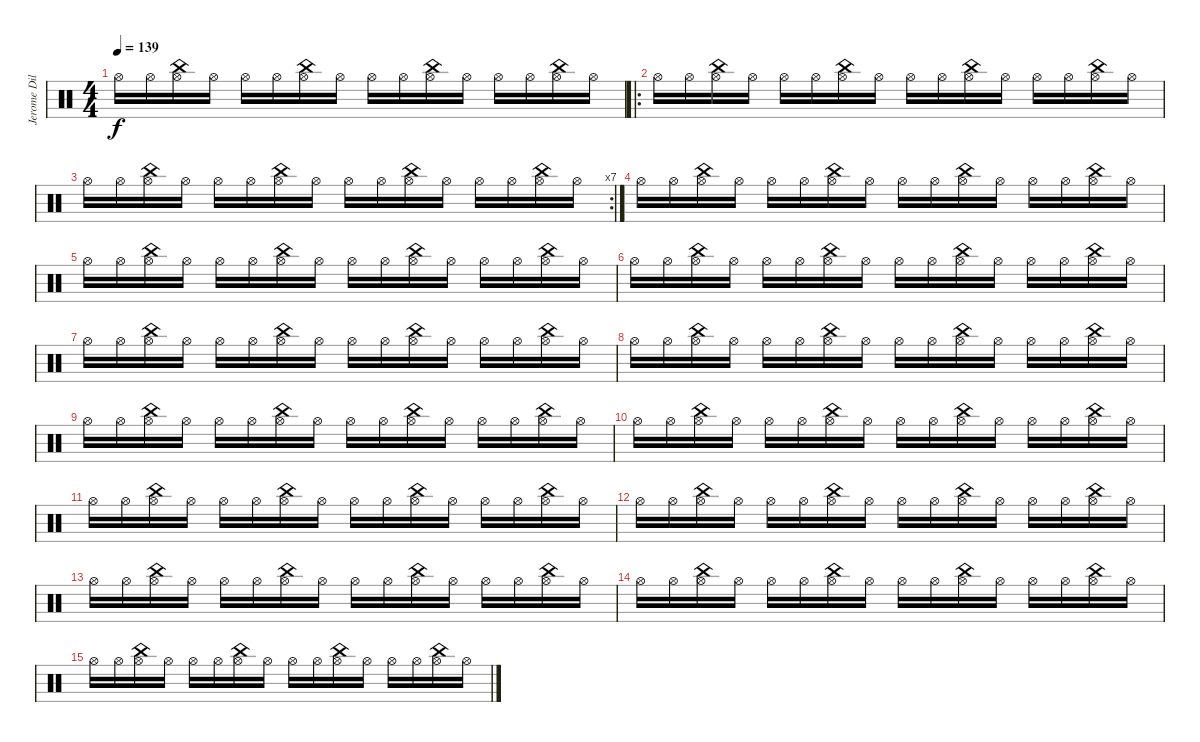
\track ("Jerome Dillon - Batería 2" "Jerome Dil") {instrument percussion}
\staff {score}
\articulation defaults
\ts (4 4)
\tempo 139
\clef neutral
\ks c "Hi-Hat (open)".16{dy f} "Hi-Hat (open)".16
("Hi-Hat (open)" "China (hit)").16 "Hi-Hat (open)".16 "Hi-Hat (open)".16 "Hi-Hat (open)".16 ("Hi-Hat (open)" "China (hit)").16 "Hi-Hat (open)".16 "Hi-Hat (open)".16 "Hi-Hat (open)".16 ("Hi-Hat (open)" "China (hit)").16 "Hi-Hat (open)".16 "Hi-Hat (open)".16 "Hi-Hat (open)".16 ("Hi-Hat (open)" "China (hit)").16 "Hi-Hat (open)".16 |
\ro "Hi-Hat (open)".16 "Hi-Hat (open)".16
("Hi-Hat (open)" "China (hit)").16 "Hi-Hat (open)".16 "Hi-Hat (open)".16 "Hi-Hat (open)".16 ("Hi-Hat (open)" "China (hit)").16 "Hi-Hat (open)".16 "Hi-Hat (open)".16 "Hi-Hat (open)".16 ("Hi-Hat (open)" "China (hit)").16 "Hi-Hat (open)".16 "Hi-Hat (open)".16 "Hi-Hat (open)".16 ("Hi-Hat (open)" "China (hit)").16 "Hi-Hat (open)".16 |
\rc 7 "Hi-Hat (open)".16 "Hi-Hat (open)".16
("Hi-Hat (open)" "China (hit)").16 "Hi-Hat (open)".16 "Hi-Hat (open)".16 "Hi-Hat (open)".16 ("Hi-Hat (open)" "China (hit)").16 "Hi-Hat (open)".16 "Hi-Hat (open)".16 "Hi-Hat (open)".16 ("Hi-Hat (open)" "China (hit)").16 "Hi-Hat (open)".16 "Hi-Hat (open)".16 "Hi-Hat (open)".16 ("Hi-Hat (open)" "China (hit)").16 "Hi-Hat (open)".16 |
"Hi-Hat (open)".16 "Hi-Hat (open)".16 ("Hi-Hat (open)" "China (hit)").16 "Hi-Hat (open)".16 "Hi-Hat (open)".16 "Hi-Hat (open)".16 ("Hi-Hat (open)" "China (hit)").16 "Hi-Hat (open)".16 "Hi-Hat (open)".16 "Hi-Hat (open)".16 ("Hi-Hat (open)" "China (hit)").16 "Hi-Hat (open)".16 "Hi-Hat (open)".16 "Hi-Hat (open)".16 ("Hi-Hat (open)" "China (hit)").16 "Hi-Hat (open)".16 |
"Hi-Hat (open)".16 "Hi-Hat (open)".16 ("Hi-Hat (open)" "China (hit)").16 "Hi-Hat (open)".16 "Hi-Hat (open)".16 "Hi-Hat (open)".16 ("Hi-Hat (open)" "China (hit)").16 "Hi-Hat (open)".16 "Hi-Hat (open)".16 "Hi-Hat (open)".16 ("Hi-Hat (open)" "China (hit)").16 "Hi-Hat (open)".16 "Hi-Hat (open)".16 "Hi-Hat (open)".16 ("Hi-Hat (open)" "China (hit)").16 "Hi-Hat (open)".16 |
"Hi-Hat (open)".16 "Hi-Hat (open)".16 ("Hi-Hat (open)" "China (hit)").16 "Hi-Hat (open)".16 "Hi-Hat (open)".16 "Hi-Hat (open)".16 ("Hi-Hat (open)" "China (hit)").16 "Hi-Hat (open)".16 "Hi-Hat (open)".16 "Hi-Hat (open)".16 ("Hi-Hat (open)" "China (hit)").16 "Hi-Hat (open)".16 "Hi-Hat (open)".16 "Hi-Hat (open)".16 ("Hi-Hat (open)" "China (hit)").16 "Hi-Hat (open)".16 |
"Hi-Hat (open)".16 "Hi-Hat (open)".16 ("Hi-Hat (open)" "China (hit)").16 "Hi-Hat (open)".16 "Hi-Hat (open)".16 "Hi-Hat (open)".16 ("Hi-Hat (open)" "China (hit)").16 "Hi-Hat (open)".16 "Hi-Hat (open)".16 "Hi-Hat (open)".16 ("Hi-Hat (open)" "China (hit)").16 "Hi-Hat (open)".16 "Hi-Hat (open)".16 "Hi-Hat (open)".16 ("Hi-Hat (open)" "China (hit)").16 "Hi-Hat (open)".16 |
"Hi-Hat (open)".16 "Hi-Hat (open)".16 ("Hi-Hat (open)" "China (hit)").16 "Hi-Hat (open)".16 "Hi-Hat (open)".16 "Hi-Hat (open)".16 ("Hi-Hat (open)" "China (hit)").16 "Hi-Hat (open)".16 "Hi-Hat (open)".16 "Hi-Hat (open)".16 ("Hi-Hat (open)" "China (hit)").16 "Hi-Hat (open)".16 "Hi-Hat (open)".16 "Hi-Hat (open)".16 ("Hi-Hat (open)" "China (hit)").16 "Hi-Hat (open)".16 |
"Hi-Hat (open)".16 "Hi-Hat (open)".16 ("Hi-Hat (open)" "China (hit)").16 "Hi-Hat (open)".16 "Hi-Hat (open)".16 "Hi-Hat (open)".16 ("Hi-Hat (open)" "China (hit)").16 "Hi-Hat (open)".16 "Hi-Hat (open)".16 "Hi-Hat (open)".16 ("Hi-Hat (open)" "China (hit)").16 "Hi-Hat (open)".16 "Hi-Hat (open)".16 "Hi-Hat (open)".16 ("Hi-Hat (open)" "China (hit)").16 "Hi-Hat (open)".16 |
"Hi-Hat (open)".16 "Hi-Hat (open)".16 ("Hi-Hat (open)" "China (hit)").16 "Hi-Hat (open)".16 "Hi-Hat (open)".16 "Hi-Hat (open)".16 ("Hi-Hat (open)" "China (hit)").16 "Hi-Hat (open)".16 "Hi-Hat (open)".16 "Hi-Hat (open)".16 ("Hi-Hat (open)" "China (hit)").16 "Hi-Hat (open)".16 "Hi-Hat (open)".16 "Hi-Hat (open)".16 ("Hi-Hat (open)" "China (hit)").16 "Hi-Hat (open)".16 |
"Hi-Hat (open)".16 "Hi-Hat (open)".16 ("Hi-Hat (open)" "China (hit)").16 "Hi-Hat (open)".16 "Hi-Hat (open)".16 "Hi-Hat (open)".16 ("Hi-Hat (open)" "China (hit)").16 "Hi-Hat (open)".16 "Hi-Hat (open)".16 "Hi-Hat (open)".16 ("Hi-Hat (open)" "China (hit)").16 "Hi-Hat (open)".16 "Hi-Hat (open)".16 "Hi-Hat (open)".16 ("Hi-Hat (open)" "China (hit)").16 "Hi-Hat (open)".16 |
"Hi-Hat (open)".16 "Hi-Hat (open)".16 ("Hi-Hat (open)" "China (hit)").16 "Hi-Hat (open)".16 "Hi-Hat (open)".16 "Hi-Hat (open)".16 ("Hi-Hat (open)" "China (hit)").16 "Hi-Hat (open)".16 "Hi-Hat (open)".16 "Hi-Hat (open)".16 ("Hi-Hat (open)" "China (hit)").16 "Hi-Hat (open)".16 "Hi-Hat (open)".16 "Hi-Hat (open)".16 ("Hi-Hat (open)" "China (hit)").16 "Hi-Hat (open)".16 |
"Hi-Hat (open)".16 "Hi-Hat (open)".16 ("Hi-Hat (open)" "China (hit)").16 "Hi-Hat (open)".16 "Hi-Hat (open)".16 "Hi-Hat (open)".16 ("Hi-Hat (open)" "China (hit)").16 "Hi-Hat (open)".16 "Hi-Hat (open)".16 "Hi-Hat (open)".16 ("Hi-Hat (open)" "China (hit)").16 "Hi-Hat (open)".16 "Hi-Hat (open)".16 "Hi-Hat (open)".16 ("Hi-Hat (open)" "China (hit)").16 "Hi-Hat (open)".16 |
"Hi-Hat (open)".16 "Hi-Hat (open)".16 ("Hi-Hat (open)" "China (hit)").16 "Hi-Hat (open)".16 "Hi-Hat (open)".16 "Hi-Hat (open)".16 ("Hi-Hat (open)" "China (hit)").16 "Hi-Hat (open)".16 "Hi-Hat (open)".16 "Hi-Hat (open)".16 ("Hi-Hat (open)" "China (hit)").16 "Hi-Hat (open)".16 "Hi-Hat (open)".16 "Hi-Hat (open)".16 ("Hi-Hat (open)" "China (hit)").16 "Hi-Hat (open)".16 |
"Hi-Hat (open)".16 "Hi-Hat (open)".16 ("Hi-Hat (open)" "China (hit)").16 "Hi-Hat (open)".16 "Hi-Hat (open)".16 "Hi-Hat (open)".16 ("Hi-Hat (open)" "China (hit)").16 "Hi-Hat (open)".16 "Hi-Hat (open)".16 "Hi-Hat (open)".16 ("Hi-Hat (open)" "China (hit)").16 "Hi-Hat (open)".16 "Hi-Hat (open)".16 "Hi-Hat (open)".16 ("Hi-Hat (open)" "China (hit)").16 "Hi-Hat (open)".16
